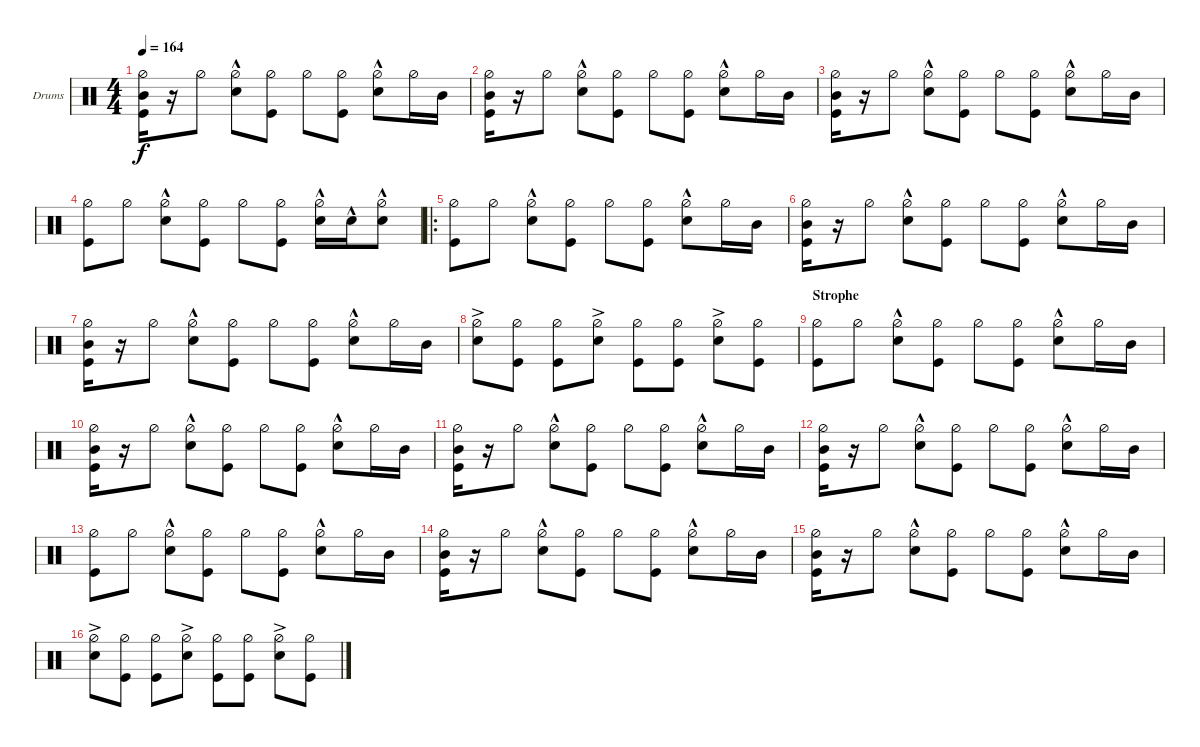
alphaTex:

\defaultSystemsLayout 4
\bracketExtendMode groupsimilarinstruments
\firstSystemTrackNameOrientation horizontal
\otherSystemsTrackNameOrientation horizontal
\track ("Drumkit" "Drums") {instrument percussion}
\staff {score}
\articulation defaults
\ts (4 4)
\tempo 164
\clef neutral
\ks c
("Mid Tom (hit)" "Hi-Hat (half)" "Kick (hit)").16{dy f} r.16 "Hi-Hat (half)".8 ("Snare (hit) 2"{hac} "Hi-Hat (half)").8 ("Kick (hit)" "Hi-Hat (half)").8 "Hi-Hat (half)".8 ("Kick (hit)" "Hi-Hat (half)").8 ("Snare (hit) 2"{hac} "Hi-Hat (half)").8 "Hi-Hat (half)".16 "Mid Tom (hit)".16 |
("Mid Tom (hit)" "Hi-Hat (half)" "Kick (hit)").16 r.16 "Hi-Hat (half)".8 ("Snare (hit) 2"{hac} "Hi-Hat (half)").8 ("Kick (hit)" "Hi-Hat (half)").8 "Hi-Hat (half)".8 ("Kick (hit)" "Hi-Hat (half)").8 ("Snare (hit) 2"{hac} "Hi-Hat (half)").8 "Hi-Hat (half)".16 "Mid Tom (hit)".16 |
("Mid Tom (hit)" "Hi-Hat (half)" "Kick (hit)").16 r.16 "Hi-Hat (half)".8 ("Snare (hit) 2"{hac} "Hi-Hat (half)").8 ("Kick (hit)" "Hi-Hat (half)").8 "Hi-Hat (half)".8 ("Kick (hit)" "Hi-Hat (half)").8 ("Snare (hit) 2"{hac} "Hi-Hat (half)").8 "Hi-Hat (half)".16 "Mid Tom (hit)".16 |
("Kick (hit)" "Hi-Hat (half)").8 "Hi-Hat (half)".8 ("Snare (hit) 2"{hac} "Hi-Hat (half)").8 ("Kick (hit)" "Hi-Hat (half)").8 "Hi-Hat (half)".8 ("Hi-Hat (half)" "Kick (hit)").8 ("Snare (hit) 2"{hac} "Hi-Hat (half)").16 "Snare (hit) 2"{hac}.16 ("Snare (hit) 2"{hac} "Hi-Hat (half)").8 |
\ro
("Kick (hit)" "Hi-Hat (half)").8 "Hi-Hat (half)".8 ("Snare (hit) 2"{hac} "Hi-Hat (half)").8 ("Kick (hit)" "Hi-Hat (half)").8 "Hi-Hat (half)".8 ("Kick (hit)" "Hi-Hat (half)").8 ("Snare (hit) 2"{hac} "Hi-Hat (half)").8 "Hi-Hat (half)".16 "Mid Tom (hit)".16 |
("Mid Tom (hit)" "Hi-Hat (half)" "Kick (hit)").16 r.16 "Hi-Hat (half)".8 ("Snare (hit) 2"{hac} "Hi-Hat (half)").8 ("Kick (hit)" "Hi-Hat (half)").8 "Hi-Hat (half)".8 ("Kick (hit)" "Hi-Hat (half)").8 ("Snare (hit) 2"{hac} "Hi-Hat (half)").8 "Hi-Hat (half)".16 "Mid Tom (hit)".16 |
("Mid Tom (hit)" "Hi-Hat (half)" "Kick (hit)").16 r.16 "Hi-Hat (half)".8 ("Snare (hit) 2"{hac} "Hi-Hat (half)").8 ("Kick (hit)" "Hi-Hat (half)").8 "Hi-Hat (half)".8 ("Kick (hit)" "Hi-Hat (half)").8 ("Snare (hit) 2"{hac} "Hi-Hat (half)").8 "Hi-Hat (half)".16 "Mid Tom (hit)".16 |
("Snare (hit) 2"{ac} "Hi-Hat (half)").8 ("Kick (hit)" "Hi-Hat (half)").8 ("Kick (hit)" "Hi-Hat (half)").8 ("Snare (hit) 2"{ac} "Hi-Hat (half)").8 ("Kick (hit)" "Hi-Hat (half)").8 ("Kick (hit)" "Hi-Hat (half)").8 ("Snare (hit) 2"{ac} "Hi-Hat (half)").8 ("Kick (hit)" "Hi-Hat (half)").8 |
\section ("" "Strophe")
("Kick (hit)" "Hi-Hat (half)").8 "Hi-Hat (half)".8 ("Snare (hit) 2"{hac} "Hi-Hat (half)").8 ("Kick (hit)" "Hi-Hat (half)").8 "Hi-Hat (half)".8 ("Kick (hit)" "Hi-Hat (half)").8 ("Snare (hit) 2"{hac} "Hi-Hat (half)").8 "Hi-Hat (half)".16 "Mid Tom (hit)".16 |
("Mid Tom (hit)" "Hi-Hat (half)" "Kick (hit)").16 r.16 "Hi-Hat (half)".8 ("Snare (hit) 2"{hac} "Hi-Hat (half)").8 ("Kick (hit)" "Hi-Hat (half)").8 "Hi-Hat (half)".8 ("Kick (hit)" "Hi-Hat (half)").8 ("Snare (hit) 2"{hac} "Hi-Hat (half)").8 "Hi-Hat (half)".16 "Mid Tom (hit)".16 |
("Mid Tom (hit)" "Hi-Hat (half)" "Kick (hit)").16 r.16 "Hi-Hat (half)".8 ("Snare (hit) 2"{hac} "Hi-Hat (half)").8 ("Kick (hit)" "Hi-Hat (half)").8 "Hi-Hat (half)".8 ("Kick (hit)" "Hi-Hat (half)").8 ("Snare (hit) 2"{hac} "Hi-Hat (half)").8 "Hi-Hat (half)".16 "Mid Tom (hit)".16 |
("Mid Tom (hit)" "Hi-Hat (half)" "Kick (hit)").16 r.16 "Hi-Hat (half)".8 ("Snare (hit) 2"{hac} "Hi-Hat (half)").8 ("Kick (hit)" "Hi-Hat (half)").8 "Hi-Hat (half)".8 ("Kick (hit)" "Hi-Hat (half)").8 ("Snare (hit) 2"{hac} "Hi-Hat (half)").8 "Hi-Hat (half)".16 "Mid Tom (hit)".16 |
("Kick (hit)" "Hi-Hat (half)").8 "Hi-Hat (half)".8 ("Snare (hit) 2"{hac} "Hi-Hat (half)").8 ("Kick (hit)" "Hi-Hat (half)").8 "Hi-Hat (half)".8 ("Kick (hit)" "Hi-Hat (half)").8 ("Snare (hit) 2"{hac} "Hi-Hat (half)").8 "Hi-Hat (half)".16 "Mid Tom (hit)".16 |
("Mid Tom (hit)" "Hi-Hat (half)" "Kick (hit)").16 r.16 "Hi-Hat (half)".8 ("Snare (hit) 2"{hac} "Hi-Hat (half)").8 ("Kick (hit)" "Hi-Hat (half)").8 "Hi-Hat (half)".8 ("Kick (hit)" "Hi-Hat (half)").8 ("Snare (hit) 2"{hac} "Hi-Hat (half)").8 "Hi-Hat (half)".16 "Mid Tom (hit)".16 |
("Mid Tom (hit)" "Hi-Hat (half)" "Kick (hit)").16 r.16 "Hi-Hat (half)".8 ("Snare (hit) 2"{hac} "Hi-Hat (half)").8 ("Kick (hit)" "Hi-Hat (half)").8 "Hi-Hat (half)".8 ("Kick (hit)" "Hi-Hat (half)").8 ("Snare (hit) 2"{hac} "Hi-Hat (half)").8 "Hi-Hat (half)".16 "Mid Tom (hit)".16 |
("Snare (hit) 2"{ac} "Hi-Hat (half)").8 ("Kick (hit)" "Hi-Hat (half)").8 ("Kick (hit)" "Hi-Hat (half)").8 ("Snare (hit) 2"{ac} "Hi-Hat (half)").8 ("Kick (hit)" "Hi-Hat (half)").8 ("Kick (hit)" "Hi-Hat (half)").8 ("Snare (hit) 2"{ac} "Hi-Hat (half)").8 ("Kick (hit)" "Hi-Hat (half)").8
